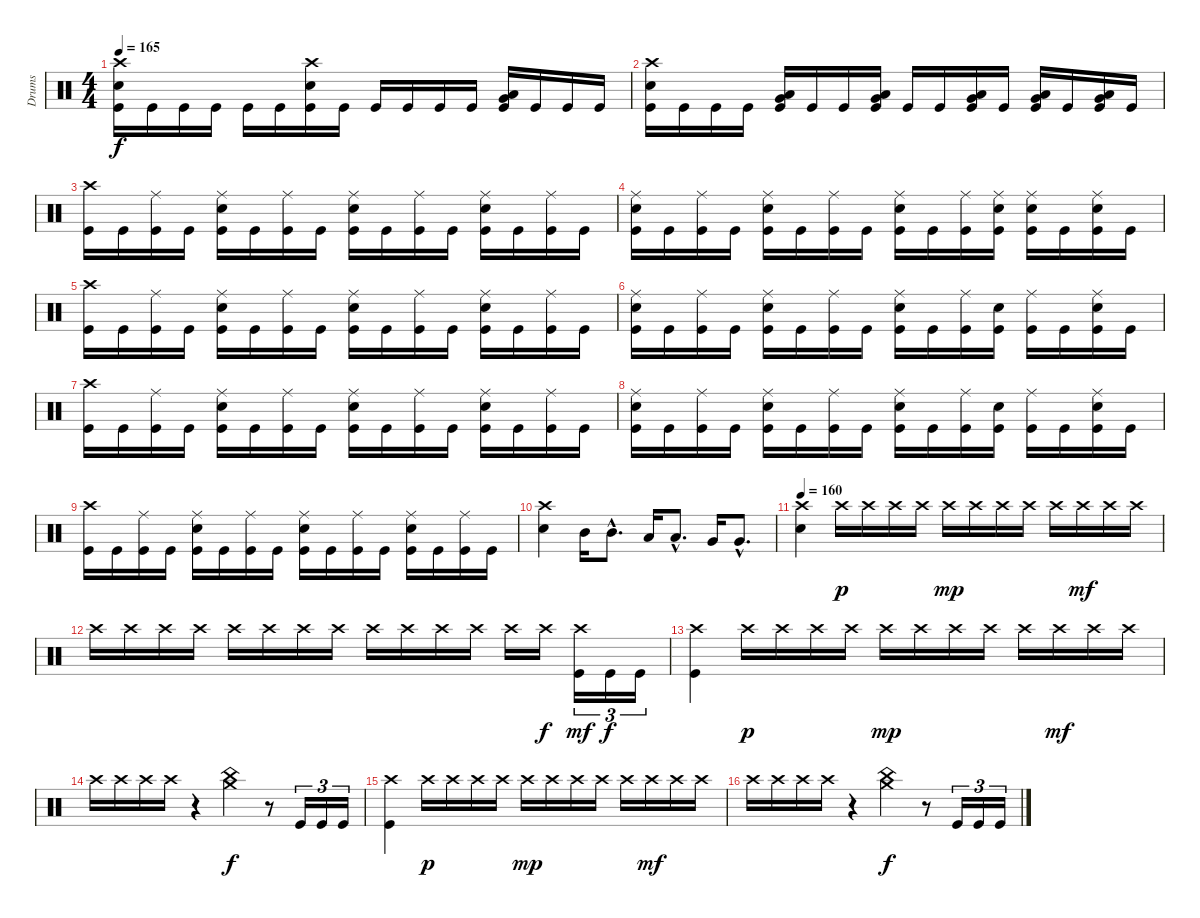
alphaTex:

\track ("Drums" "Drums") {instrument percussion}
\staff {score}
\articulation defaults
\ts (4 4)
\tempo 165
\clef neutral
\ks c
("Crash high (hit)" "Electric Snare (hit)" "Kick (hit)").16{dy f} "Kick (hit)".16 "Kick (hit)".16 "Kick (hit)".16 "Kick (hit)".16 "Kick (hit)".16 ("Crash high (hit)" "Electric Snare (hit)" "Kick (hit)").16 "Kick (hit)".16 "Kick (hit)".16 "Kick (hit)".16 "Kick (hit)".16 "Kick (hit)".16 ("Low Tom (hit)" "Very Low Tom (hit)" "Kick (hit)").16 "Kick (hit)".16 "Kick (hit)".16 "Kick (hit)".16 |
("Crash high (hit)" "Electric Snare (hit)" "Kick (hit)").16 "Kick (hit)".16 "Kick (hit)".16 "Kick (hit)".16 ("Low Tom (hit)" "Very Low Tom (hit)" "Kick (hit)").16 "Kick (hit)".16 "Kick (hit)".16 ("Very Low Tom (hit)" "Low Tom (hit)" "Kick (hit)").16 "Kick (hit)".16 "Kick (hit)".16 ("Low Tom (hit)" "Very Low Tom (hit)" "Kick (hit)").16 "Kick (hit)".16 ("Low Tom (hit)" "Very Low Tom (hit)" "Kick (hit)").16 "Kick (hit)".16 ("Low Tom (hit)" "Very Low Tom (hit)" "Kick (hit)").16 "Kick (hit)".16 |
("Crash high (hit)" "Kick (hit)").16 "Kick (hit)".16 ("Ride (middle)" "Kick (hit)").16 "Kick (hit)".16 ("Ride (middle)" "Electric Snare (hit)" "Kick (hit)").16 "Kick (hit)".16 ("Ride (middle)" "Kick (hit)").16 "Kick (hit)".16 ("Ride (middle)" "Electric Snare (hit)" "Kick (hit)").16 "Kick (hit)".16 ("Ride (middle)" "Kick (hit)").16 "Kick (hit)".16 ("Ride (middle)" "Electric Snare (hit)" "Kick (hit)").16 "Kick (hit)".16 ("Ride (middle)" "Kick (hit)").16 "Kick (hit)".16 |
("Ride (middle)" "Electric Snare (hit)" "Kick (hit)").16 "Kick (hit)".16 ("Ride (middle)" "Kick (hit)").16 "Kick (hit)".16 ("Ride (middle)" "Electric Snare (hit)" "Kick (hit)").16 "Kick (hit)".16 ("Ride (middle)" "Kick (hit)").16 "Kick (hit)".16 ("Ride (middle)" "Electric Snare (hit)" "Kick (hit)").16 "Kick (hit)".16 ("Ride (middle)" "Kick (hit)").16 ("Ride (middle)" "Electric Snare (hit)" "Kick (hit)").16 ("Ride (middle)" "Electric Snare (hit)" "Kick (hit)").16 "Kick (hit)".16 ("Ride (middle)" "Electric Snare (hit)" "Kick (hit)").16 "Kick (hit)".16 |
("Crash high (hit)" "Kick (hit)").16 "Kick (hit)".16 ("Ride (middle)" "Kick (hit)").16 "Kick (hit)".16 ("Ride (middle)" "Electric Snare (hit)" "Kick (hit)").16 "Kick (hit)".16 ("Ride (middle)" "Kick (hit)").16 "Kick (hit)".16 ("Ride (middle)" "Electric Snare (hit)" "Kick (hit)").16 "Kick (hit)".16 ("Ride (middle)" "Kick (hit)").16 "Kick (hit)".16 ("Ride (middle)" "Electric Snare (hit)" "Kick (hit)").16 "Kick (hit)".16 ("Ride (middle)" "Kick (hit)").16 "Kick (hit)".16 |
("Ride (middle)" "Electric Snare (hit)" "Kick (hit)").16 "Kick (hit)".16 ("Ride (middle)" "Kick (hit)").16 "Kick (hit)".16 ("Ride (middle)" "Electric Snare (hit)" "Kick (hit)").16 "Kick (hit)".16 ("Ride (middle)" "Kick (hit)").16 "Kick (hit)".16 ("Ride (middle)" "Electric Snare (hit)" "Kick (hit)").16 "Kick (hit)".16 ("Ride (middle)" "Kick (hit)").16 ("Electric Snare (hit)" "Kick (hit)").16 ("Ride (middle)" "Kick (hit)").16 "Kick (hit)".16 ("Ride (middle)" "Electric Snare (hit)" "Kick (hit)").16 "Kick (hit)".16 |
("Crash high (hit)" "Kick (hit)").16 "Kick (hit)".16 ("Ride (middle)" "Kick (hit)").16 "Kick (hit)".16 ("Ride (middle)" "Electric Snare (hit)" "Kick (hit)").16 "Kick (hit)".16 ("Ride (middle)" "Kick (hit)").16 "Kick (hit)".16 ("Ride (middle)" "Electric Snare (hit)" "Kick (hit)").16 "Kick (hit)".16 ("Ride (middle)" "Kick (hit)").16 "Kick (hit)".16 ("Ride (middle)" "Electric Snare (hit)" "Kick (hit)").16 "Kick (hit)".16 ("Ride (middle)" "Kick (hit)").16 "Kick (hit)".16 |
("Ride (middle)" "Electric Snare (hit)" "Kick (hit)").16 "Kick (hit)".16 ("Ride (middle)" "Kick (hit)").16 "Kick (hit)".16 ("Ride (middle)" "Electric Snare (hit)" "Kick (hit)").16 "Kick (hit)".16 ("Ride (middle)" "Kick (hit)").16 "Kick (hit)".16 ("Ride (middle)" "Electric Snare (hit)" "Kick (hit)").16 "Kick (hit)".16 ("Ride (middle)" "Kick (hit)").16 ("Electric Snare (hit)" "Kick (hit)").16 ("Ride (middle)" "Kick (hit)").16 "Kick (hit)".16 ("Ride (middle)" "Electric Snare (hit)" "Kick (hit)").16 "Kick (hit)".16 |
("Crash high (hit)" "Kick (hit)").16 "Kick (hit)".16 ("Ride (middle)" "Kick (hit)").16 "Kick (hit)".16 ("Ride (middle)" "Electric Snare (hit)" "Kick (hit)").16 "Kick (hit)".16 ("Ride (middle)" "Kick (hit)").16 "Kick (hit)".16 ("Ride (middle)" "Electric Snare (hit)" "Kick (hit)").16 "Kick (hit)".16 ("Ride (middle)" "Kick (hit)").16 "Kick (hit)".16 ("Ride (middle)" "Electric Snare (hit)" "Kick (hit)").16 "Kick (hit)".16 ("Ride (middle)" "Kick (hit)").16 "Kick (hit)".16 |
("Crash high (hit)" "Electric Snare (hit)").4 "Mid Tom (hit)".16 "Mid Tom (hit)"{hac}.8{d} "Low Tom (hit)".16 "Low Tom (hit)"{hac}.8{d} "Very Low Tom (hit)".16 "Very Low Tom (hit)"{hac}.8{d} |
\tempo 160
("Crash high (hit)" "Electric Snare (hit)").4 "Crash high (hit)".16{dy p} "Crash high (hit)".16 "Crash high (hit)".16 "Crash high (hit)".16 "Crash high (hit)".16{dy mp} "Crash high (hit)".16 "Crash high (hit)".16 "Crash high (hit)".16 "Crash high (hit)".16 "Crash high (hit)".16{dy mf} "Crash high (hit)".16 "Crash high (hit)".16 |
"Crash high (hit)".16 "Crash high (hit)".16 "Crash high (hit)".16 "Crash high (hit)".16 "Crash high (hit)".16 "Crash high (hit)".16 "Crash high (hit)".16 "Crash high (hit)".16 "Crash high (hit)".16 "Crash high (hit)".16 "Crash high (hit)".16 "Crash high (hit)".16 "Crash high (hit)".16 "Crash high (hit)".16{dy f} ("Crash high (hit)" "Kick (hit)").16{tu (3 2) dy mf} "Kick (hit)".16{tu (3 2) dy f} "Kick (hit)".16{tu (3 2)} |
("Crash high (hit)" "Kick (hit)").4 "Crash high (hit)".16{dy p} "Crash high (hit)".16 "Crash high (hit)".16 "Crash high (hit)".16 "Crash high (hit)".16{dy mp} "Crash high (hit)".16 "Crash high (hit)".16 "Crash high (hit)".16 "Crash high (hit)".16 "Crash high (hit)".16{dy mf} "Crash high (hit)".16 "Crash high (hit)".16 |
"Crash high (hit)".16 "Crash high (hit)".16 "Crash high (hit)".16 "Crash high (hit)".16 r.4 ("Crash medium (hit)" "China (hit)").4{dy f} r.8 "Kick (hit)".16{tu (3 2)} "Kick (hit)".16{tu (3 2)} "Kick (hit)".16{tu (3 2)} |
("Crash high (hit)" "Kick (hit)").4 "Crash high (hit)".16{dy p} "Crash high (hit)".16 "Crash high (hit)".16 "Crash high (hit)".16 "Crash high (hit)".16{dy mp} "Crash high (hit)".16 "Crash high (hit)".16 "Crash high (hit)".16 "Crash high (hit)".16 "Crash high (hit)".16{dy mf} "Crash high (hit)".16 "Crash high (hit)".16 |
"Crash high (hit)".16 "Crash high (hit)".16 "Crash high (hit)".16 "Crash high (hit)".16 r.4 ("Crash medium (hit)" "China (hit)").4{dy f} r.8 "Kick (hit)".16{tu (3 2)} "Kick (hit)".16{tu (3 2)} "Kick (hit)".16{tu (3 2)}
